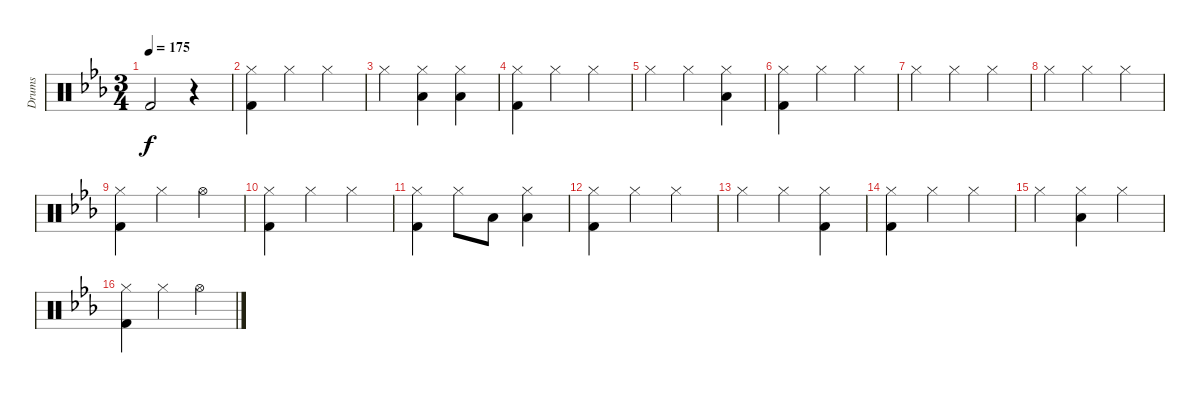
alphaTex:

\track ("Drums" "Drums") {instrument percussion}
\staff {score}
\articulation defaults
\ts (3 4)
\tempo 175
\clef neutral
\ks eb "Kick (hit) 2".2{dy f}
r.4 |
("Hi-Hat (closed)" "Kick (hit) 2").4 "Hi-Hat (closed)".4 "Hi-Hat (closed)".4 |
"Hi-Hat (closed)".4 ("Hi-Hat (closed)" "Low Tom (hit)").4 ("Hi-Hat (closed)" "Low Tom (hit)").4 |
("Hi-Hat (closed)" "Kick (hit) 2").4 "Hi-Hat (closed)".4 "Hi-Hat (closed)".4 |
"Hi-Hat (closed)".4 "Hi-Hat (closed)".4 ("Hi-Hat (closed)" "Low Tom (hit)").4 |
("Hi-Hat (closed)" "Kick (hit) 2").4 "Hi-Hat (closed)".4 "Hi-Hat (closed)".4 |
"Hi-Hat (closed)".4 "Hi-Hat (closed)".4 "Hi-Hat (closed)".4 |
"Hi-Hat (closed)".4 "Hi-Hat (closed)".4 "Hi-Hat (closed)".4 |
("Hi-Hat (closed)" "Kick (hit) 2").4 "Hi-Hat (closed)".4 "Hi-Hat (open)".4 |
("Hi-Hat (closed)" "Kick (hit) 2").4 "Hi-Hat (closed)".4 "Hi-Hat (closed)".4 |
("Hi-Hat (closed)" "Kick (hit) 2").4 "Hi-Hat (closed)".8 "Low Tom (hit)".8 ("Hi-Hat (closed)" "Low Tom (hit)").4 |
("Hi-Hat (closed)" "Kick (hit) 2").4 "Hi-Hat (closed)".4 "Hi-Hat (closed)".4 |
"Hi-Hat (closed)".4 "Hi-Hat (closed)".4 ("Hi-Hat (closed)" "Kick (hit) 2").4 |
("Hi-Hat (closed)" "Kick (hit) 2").4 "Hi-Hat (closed)".4 "Hi-Hat (closed)".4 |
"Hi-Hat (closed)".4 ("Hi-Hat (closed)" "Low Tom (hit)").4 "Hi-Hat (closed)".4 |
("Hi-Hat (closed)" "Kick (hit) 2").4 "Hi-Hat (closed)".4 "Hi-Hat (open)".4
